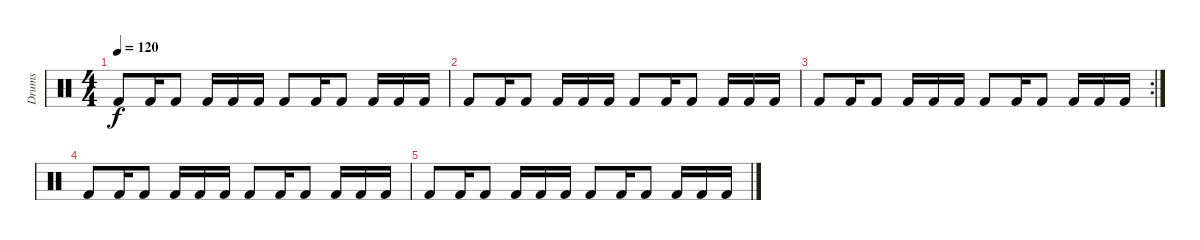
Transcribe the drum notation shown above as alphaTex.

\track ("Drums" "Drums") {instrument percussion}
\staff {score}
\articulation defaults
\ts (4 4)
\tempo 120
\clef neutral
\ks c "Kick (hit) 2".8{dy f} "Kick (hit) 2".16 "Kick (hit) 2".8 "Kick (hit) 2".16 "Kick (hit) 2".16 "Kick (hit) 2".16 "Kick (hit) 2".8 "Kick (hit) 2".16 "Kick (hit) 2".8 "Kick (hit) 2".16 "Kick (hit) 2".16 "Kick (hit) 2".16
|
"Kick (hit) 2".8 "Kick (hit) 2".16 "Kick (hit) 2".8 "Kick (hit) 2".16 "Kick (hit) 2".16 "Kick (hit) 2".16 "Kick (hit) 2".8 "Kick (hit) 2".16 "Kick (hit) 2".8 "Kick (hit) 2".16 "Kick (hit) 2".16 "Kick (hit) 2".16 |
\rc 2 "Kick (hit) 2".8 "Kick (hit) 2".16 "Kick (hit) 2".8 "Kick (hit) 2".16 "Kick (hit) 2".16 "Kick (hit) 2".16 "Kick (hit) 2".8 "Kick (hit) 2".16 "Kick (hit) 2".8 "Kick (hit) 2".16 "Kick (hit) 2".16 "Kick (hit) 2".16
|
"Kick (hit) 2".8 "Kick (hit) 2".16 "Kick (hit) 2".8 "Kick (hit) 2".16 "Kick (hit) 2".16 "Kick (hit) 2".16 "Kick (hit) 2".8 "Kick (hit) 2".16 "Kick (hit) 2".8 "Kick (hit) 2".16 "Kick (hit) 2".16 "Kick (hit) 2".16 |
"Kick (hit) 2".8 "Kick (hit) 2".16 "Kick (hit) 2".8 "Kick (hit) 2".16 "Kick (hit) 2".16 "Kick (hit) 2".16 "Kick (hit) 2".8 "Kick (hit) 2".16 "Kick (hit) 2".8 "Kick (hit) 2".16 "Kick (hit) 2".16 "Kick (hit) 2".16
